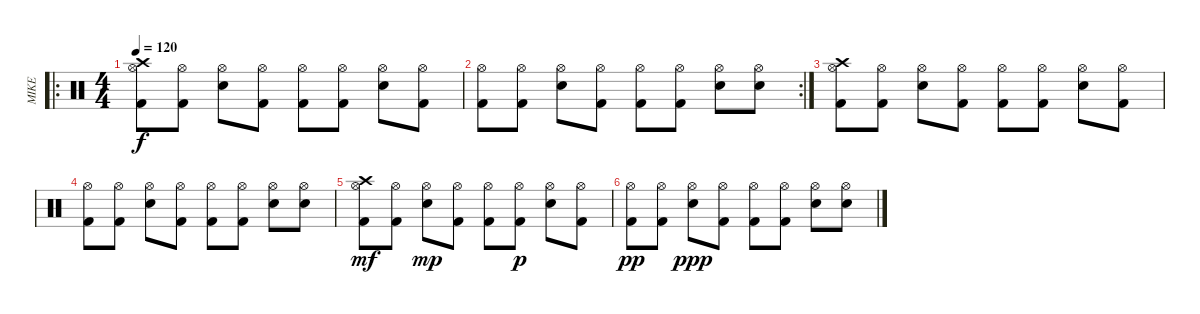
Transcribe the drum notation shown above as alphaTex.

\track ("MIKE" "MIKE") {instrument percussion}
\staff {score}
\articulation defaults
\ro
\ts (4 4)
\tempo 120
\clef neutral
\ks c
("Crash high (hit)" "Hi-Hat (open)" "Kick (hit) 2").8{dy f} ("Hi-Hat (open)" "Kick (hit) 2").8 ("Hi-Hat (open)" "Snare (hit) 2").8 ("Hi-Hat (open)" "Kick (hit) 2").8 ("Hi-Hat (open)" "Kick (hit) 2").8 ("Hi-Hat (open)" "Kick (hit) 2").8 ("Hi-Hat (open)" "Snare (hit) 2").8 ("Hi-Hat (open)" "Kick (hit) 2").8 |
\rc 2
("Hi-Hat (open)" "Kick (hit) 2").8 ("Hi-Hat (open)" "Kick (hit) 2").8 ("Hi-Hat (open)" "Snare (hit) 2").8 ("Hi-Hat (open)" "Kick (hit) 2").8 ("Hi-Hat (open)" "Kick (hit) 2").8 ("Hi-Hat (open)" "Kick (hit) 2").8 ("Hi-Hat (open)" "Snare (hit) 2").8 ("Hi-Hat (open)" "Snare (hit) 2").8 |
("Crash high (hit)" "Hi-Hat (open)" "Kick (hit) 2").8 ("Hi-Hat (open)" "Kick (hit) 2").8 ("Hi-Hat (open)" "Snare (hit) 2").8 ("Hi-Hat (open)" "Kick (hit) 2").8 ("Hi-Hat (open)" "Kick (hit) 2").8 ("Hi-Hat (open)" "Kick (hit) 2").8 ("Hi-Hat (open)" "Snare (hit) 2").8 ("Hi-Hat (open)" "Kick (hit) 2").8 |
("Hi-Hat (open)" "Kick (hit) 2").8 ("Hi-Hat (open)" "Kick (hit) 2").8 ("Hi-Hat (open)" "Snare (hit) 2").8 ("Hi-Hat (open)" "Kick (hit) 2").8 ("Hi-Hat (open)" "Kick (hit) 2").8 ("Hi-Hat (open)" "Kick (hit) 2").8 ("Hi-Hat (open)" "Snare (hit) 2").8 ("Hi-Hat (open)" "Snare (hit) 2").8 |
("Crash high (hit)" "Hi-Hat (open)" "Kick (hit) 2").8{dy mf} ("Hi-Hat (open)" "Kick (hit) 2").8 ("Hi-Hat (open)" "Snare (hit) 2").8{dy mp} ("Hi-Hat (open)" "Kick (hit) 2").8 ("Hi-Hat (open)" "Kick (hit) 2").8 ("Hi-Hat (open)" "Kick (hit) 2").8{dy p} ("Hi-Hat (open)" "Snare (hit) 2").8 ("Hi-Hat (open)" "Kick (hit) 2").8 |
("Hi-Hat (open)" "Kick (hit) 2").8{dy pp} ("Hi-Hat (open)" "Kick (hit) 2").8 ("Hi-Hat (open)" "Snare (hit) 2").8{dy ppp} ("Hi-Hat (open)" "Kick (hit) 2").8 ("Hi-Hat (open)" "Kick (hit) 2").8 ("Hi-Hat (open)" "Kick (hit) 2").8 ("Hi-Hat (open)" "Snare (hit) 2").8 ("Hi-Hat (open)" "Snare (hit) 2").8
